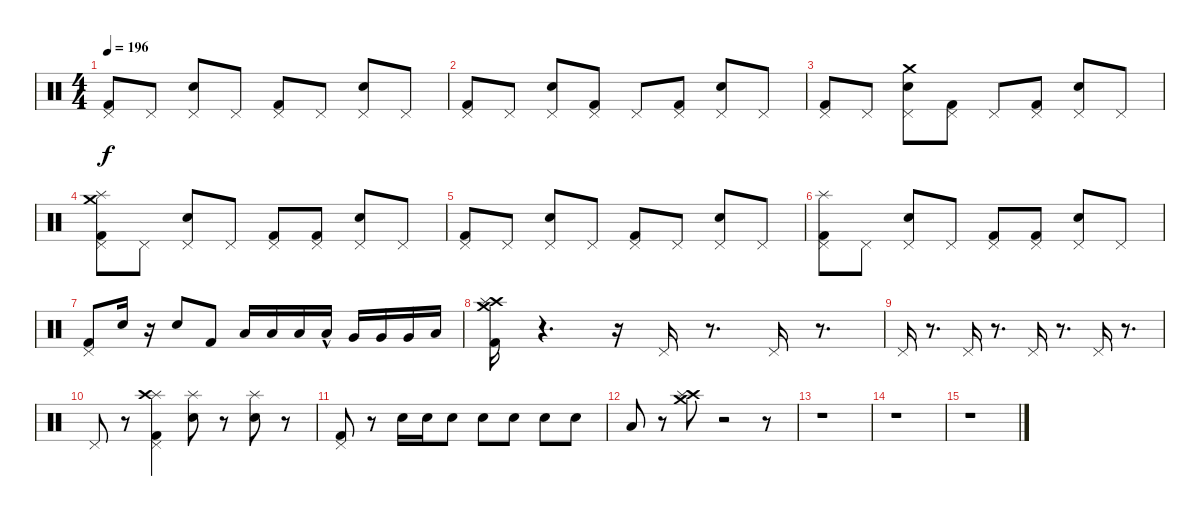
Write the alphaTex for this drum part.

\track "" {instrument percussion}
\staff {score}
\articulation defaults
\ts (4 4)
\tempo 196
\clef neutral
\ks c
("Pedal Hi-Hat (hit)" "Kick (hit) 2").8{dy f} "Pedal Hi-Hat (hit)".8 ("Electric Snare (hit)" "Pedal Hi-Hat (hit)").8 "Pedal Hi-Hat (hit)".8 ("Kick (hit) 2" "Pedal Hi-Hat (hit)").8 "Pedal Hi-Hat (hit)".8 ("Pedal Hi-Hat (hit)" "Electric Snare (hit)").8 "Pedal Hi-Hat (hit)".8 |
("Pedal Hi-Hat (hit)" "Kick (hit) 2").8 "Pedal Hi-Hat (hit)".8 ("Electric Snare (hit)" "Pedal Hi-Hat (hit)").8 ("Kick (hit) 2" "Pedal Hi-Hat (hit)").8 "Pedal Hi-Hat (hit)".8 ("Kick (hit) 2" "Pedal Hi-Hat (hit)").8 ("Electric Snare (hit)" "Pedal Hi-Hat (hit)").8 "Pedal Hi-Hat (hit)".8 |
("Pedal Hi-Hat (hit)" "Kick (hit) 2").8 "Pedal Hi-Hat (hit)".8 ("Crash medium (hit)" "Pedal Hi-Hat (hit)" "Electric Snare (hit)").8 ("Pedal Hi-Hat (hit)" "Kick (hit) 2").8 "Pedal Hi-Hat (hit)".8 ("Pedal Hi-Hat (hit)" "Kick (hit) 2").8 ("Pedal Hi-Hat (hit)" "Electric Snare (hit)").8 "Pedal Hi-Hat (hit)".8 |
("Pedal Hi-Hat (hit)" "Splash (hit)" "Crash medium (hit)" "Kick (hit) 2").8 "Pedal Hi-Hat (hit)".8 ("Electric Snare (hit)" "Pedal Hi-Hat (hit)").8 "Pedal Hi-Hat (hit)".8 ("Kick (hit) 2" "Pedal Hi-Hat (hit)").8 ("Kick (hit) 2" "Pedal Hi-Hat (hit)").8 ("Electric Snare (hit)" "Pedal Hi-Hat (hit)").8 "Pedal Hi-Hat (hit)".8 |
("Pedal Hi-Hat (hit)" "Kick (hit) 2").8 "Pedal Hi-Hat (hit)".8 ("Electric Snare (hit)" "Pedal Hi-Hat (hit)").8 "Pedal Hi-Hat (hit)".8 ("Kick (hit) 2" "Pedal Hi-Hat (hit)").8 "Pedal Hi-Hat (hit)".8 ("Pedal Hi-Hat (hit)" "Electric Snare (hit)").8 "Pedal Hi-Hat (hit)".8 |
("Splash (hit)" "Pedal Hi-Hat (hit)" "Kick (hit) 2").8 "Pedal Hi-Hat (hit)".8 ("Electric Snare (hit)" "Pedal Hi-Hat (hit)").8 "Pedal Hi-Hat (hit)".8 ("Kick (hit) 2" "Pedal Hi-Hat (hit)").8 ("Kick (hit) 2" "Pedal Hi-Hat (hit)").8 ("Pedal Hi-Hat (hit)" "Electric Snare (hit)").8 "Pedal Hi-Hat (hit)".8 |
("Pedal Hi-Hat (hit)" "Kick (hit) 2").8 "Electric Snare (hit)".16 r.16 "Electric Snare (hit)".8 "Kick (hit) 2".8 "Low Tom (hit)".16 "Low Tom (hit)".16 "Low Tom (hit)".16 "Low Tom (hit)"{hac}.16 "Very Low Tom (hit)".16 "Very Low Tom (hit)".16 "Very Low Tom (hit)".16 "Low Floor Tom (hit)".16 |
("Crash high (hit)" "Splash (hit)" "Crash medium (hit)" "Kick (hit) 2").16 r.4{d} r.16 "Pedal Hi-Hat (hit)".16 r.8{d} "Pedal Hi-Hat (hit)".16 r.8{d} |
"Pedal Hi-Hat (hit)".16 r.8{d} "Pedal Hi-Hat (hit)".16 r.8{d} "Pedal Hi-Hat (hit)".16 r.8{d} "Pedal Hi-Hat (hit)".16 r.8{d} |
"Pedal Hi-Hat (hit)".8 r.8 ("Splash (hit)" "Crash high (hit)" "Kick (hit) 2" "Pedal Hi-Hat (hit)").4 ("Splash (hit)" "Electric Snare (hit)").8 r.8 ("Splash (hit)" "Electric Snare (hit)").8 r.8 |
("Kick (hit) 2" "Pedal Hi-Hat (hit)").8 r.8 "Electric Snare (hit)".16 "Electric Snare (hit)".16 "Electric Snare (hit)".8 "Electric Snare (hit)".8 "Electric Snare (hit)".8 "Electric Snare (hit)".8 "Electric Snare (hit)".8 |
"Low Tom (hit)".8 r.8 ("Crash high (hit)" "Splash (hit)" "Crash medium (hit)").8 r.2 r.8 |
r.1 |
r.1 |
r.1
